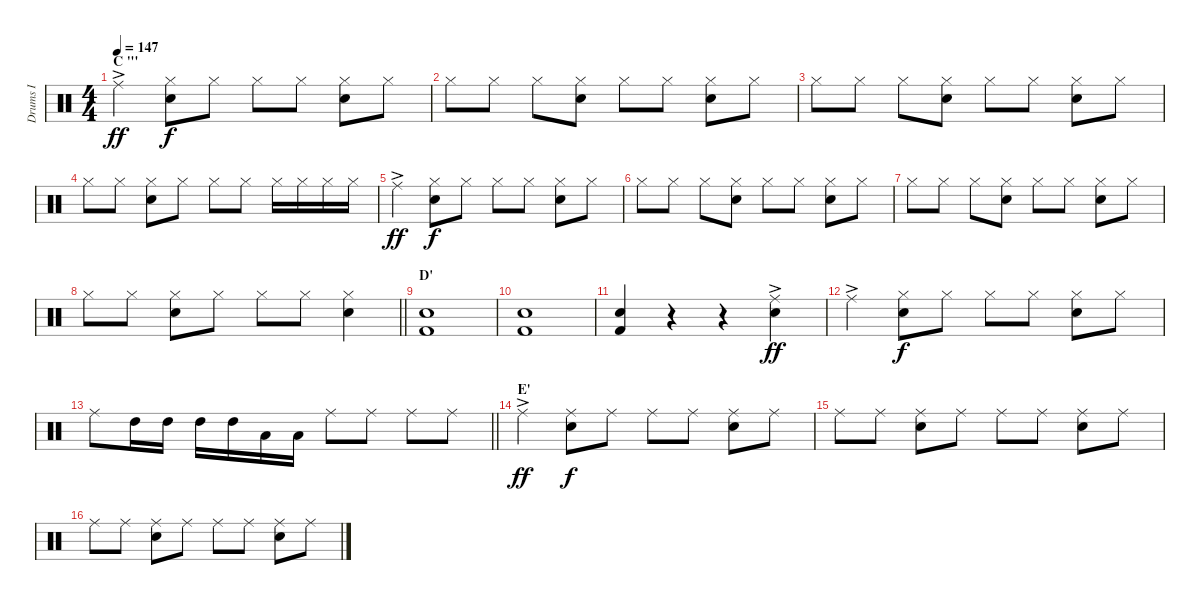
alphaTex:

\track ("Drums I" "Drums I") {instrument percussion}
\staff {score}
\articulation defaults
\ts (4 4)
\section ("" "C \"'")
\tempo 147
\clef neutral
\ks c "Ride (middle)"{ac}.4{dy ff}
("Hi-Hat (closed)" "Snare (hit) 2").8{dy f} "Hi-Hat (closed)".8 "Hi-Hat (closed)".8 "Hi-Hat (closed)".8 ("Hi-Hat (closed)" "Snare (hit) 2").8 "Hi-Hat (closed)".8 |
"Hi-Hat (closed)".8 "Hi-Hat (closed)".8 "Hi-Hat (closed)".8 ("Hi-Hat (closed)" "Snare (hit) 2").8 "Hi-Hat (closed)".8 "Hi-Hat (closed)".8 ("Hi-Hat (closed)" "Snare (hit) 2").8 "Hi-Hat (closed)".8 |
"Hi-Hat (closed)".8 "Hi-Hat (closed)".8 "Hi-Hat (closed)".8 ("Hi-Hat (closed)" "Snare (hit) 2").8 "Hi-Hat (closed)".8 "Hi-Hat (closed)".8 ("Hi-Hat (closed)" "Snare (hit) 2").8 "Hi-Hat (closed)".8 |
"Hi-Hat (closed)".8 "Hi-Hat (closed)".8 ("Hi-Hat (closed)" "Snare (hit) 2").8 "Hi-Hat (closed)".8 "Hi-Hat (closed)".8 "Hi-Hat (closed)".8 "Hi-Hat (closed)".16 "Hi-Hat (closed)".16 "Hi-Hat (closed)".16 "Hi-Hat (closed)".16 |
"Ride (middle)"{ac}.4{dy ff} ("Hi-Hat (closed)" "Snare (hit) 2").8{dy f} "Hi-Hat (closed)".8 "Hi-Hat (closed)".8 "Hi-Hat (closed)".8 ("Hi-Hat (closed)" "Snare (hit) 2").8 "Hi-Hat (closed)".8 |
"Hi-Hat (closed)".8 "Hi-Hat (closed)".8 "Hi-Hat (closed)".8 ("Hi-Hat (closed)" "Snare (hit) 2").8 "Hi-Hat (closed)".8 "Hi-Hat (closed)".8 ("Hi-Hat (closed)" "Snare (hit) 2").8 "Hi-Hat (closed)".8 |
"Hi-Hat (closed)".8 "Hi-Hat (closed)".8 "Hi-Hat (closed)".8 ("Hi-Hat (closed)" "Snare (hit) 2").8 "Hi-Hat (closed)".8 "Hi-Hat (closed)".8 ("Hi-Hat (closed)" "Snare (hit) 2").8 "Hi-Hat (closed)".8 |
\barLineRight lightlight "Hi-Hat (closed)".8 "Hi-Hat (closed)".8
("Hi-Hat (closed)" "Snare (hit) 2").8 "Hi-Hat (closed)".8 "Hi-Hat (closed)".8 "Hi-Hat (closed)".8 ("Hi-Hat (closed)" "Snare (hit) 2").4 |
\section ("" "D'")
("Snare (hit) 2" "Kick (hit) 2").1 |
("Snare (hit) 2" "Kick (hit) 2").1 |
("Snare (hit) 2" "Kick (hit) 2").4 r.4 r.4 ("Ride (middle)"{ac} "Snare (hit) 2").4{dy ff} |
"Ride (middle)"{ac}.4 ("Hi-Hat (closed)" "Snare (hit) 2").8{dy f} "Hi-Hat (closed)".8 "Hi-Hat (closed)".8 "Hi-Hat (closed)".8 ("Hi-Hat (closed)" "Snare (hit) 2").8 "Hi-Hat (closed)".8 |
\barLineRight lightlight "Ride (middle)".8 "High Tom (hit)".16 "High Tom (hit)".16 "High Tom (hit)".16 "High Tom (hit)".16 "Low Tom (hit)".16 "Low Tom (hit)".16 "Ride (middle)".8 "Ride (middle)".8 "Ride (middle)".8 "Ride (middle)".8
|
\section ("" "E'")
"Ride (middle)"{ac}.4{dy ff} ("Ride (middle)" "Snare (hit) 2").8{dy f} "Ride (middle)".8 "Ride (middle)".8 "Ride (middle)".8 ("Ride (middle)" "Snare (hit) 2").8 "Ride (middle)".8 |
"Ride (middle)".8 "Ride (middle)".8 ("Ride (middle)" "Snare (hit) 2").8 "Ride (middle)".8 "Ride (middle)".8 "Ride (middle)".8 ("Ride (middle)" "Snare (hit) 2").8 "Ride (middle)".8 |
"Ride (middle)".8 "Ride (middle)".8 ("Ride (middle)" "Snare (hit) 2").8 "Ride (middle)".8 "Ride (middle)".8 "Ride (middle)".8 ("Ride (middle)" "Snare (hit) 2").8 "Ride (middle)".8
